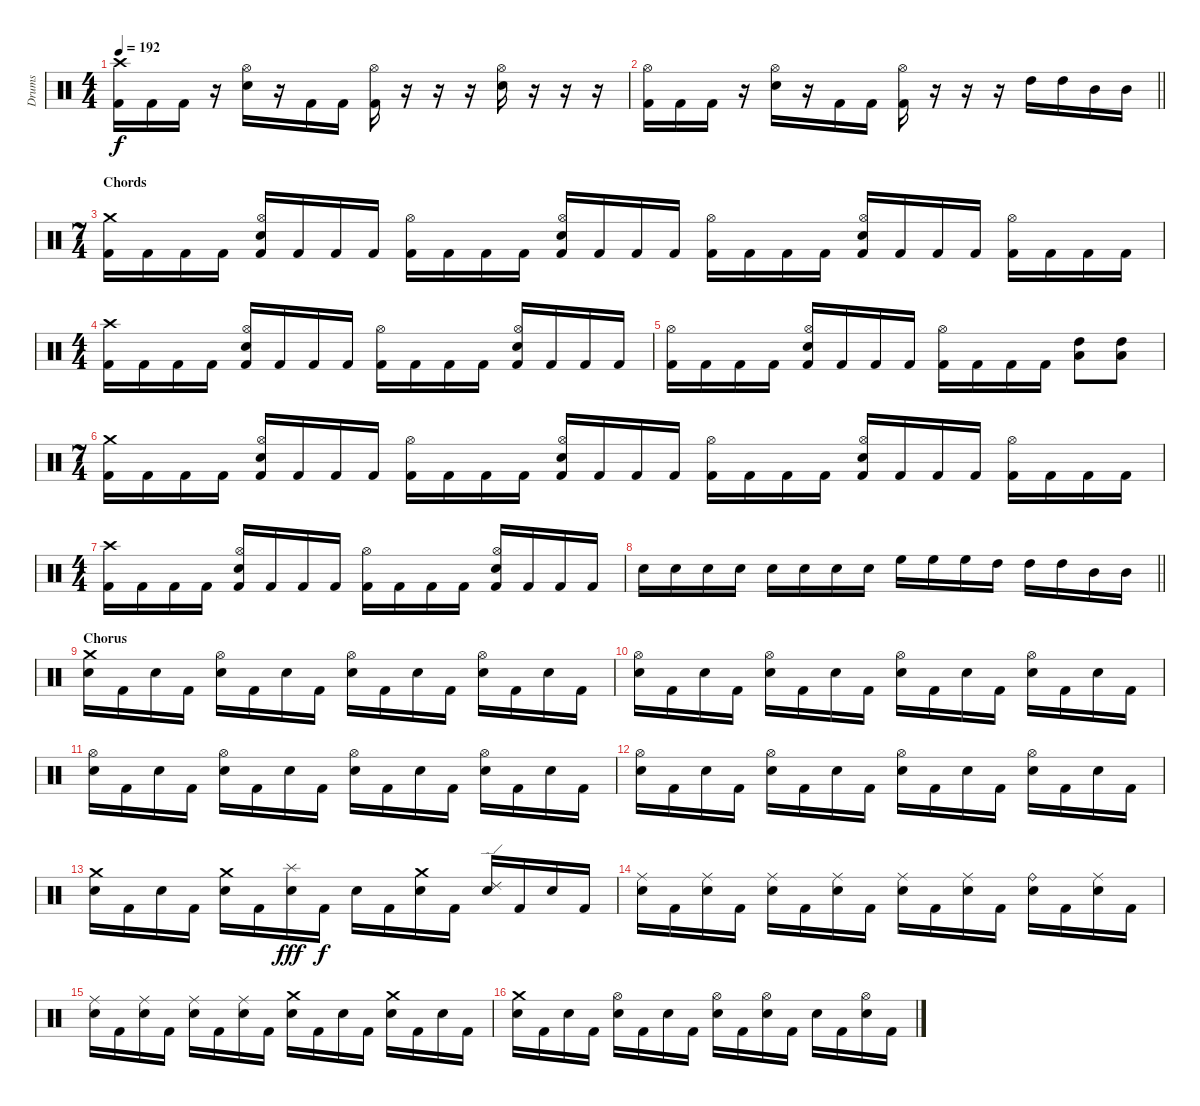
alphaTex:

\track ("Drums" "Drums") {instrument percussion}
\staff {score}
\articulation defaults
\ts (4 4)
\tempo 192
\clef neutral
\ks c
("Crash high (hit)" "Kick (hit) 2").16{dy f} "Kick (hit) 2".16 "Kick (hit) 2".16 r.16 ("Hi-Hat (open)" "Electric Snare (hit)").16 r.16 "Kick (hit) 2".16 "Kick (hit) 2".16 ("Hi-Hat (open)" "Kick (hit) 2").16 r.16 r.16 r.16 ("Hi-Hat (open)" "Electric Snare (hit)").16 r.16 r.16 r.16 |
\barLineRight lightlight
("Hi-Hat (open)" "Kick (hit) 2").16 "Kick (hit) 2".16 "Kick (hit) 2".16 r.16 ("Hi-Hat (open)" "Electric Snare (hit)").16 r.16 "Kick (hit) 2".16 "Kick (hit) 2".16 ("Hi-Hat (open)" "Kick (hit) 2").16 r.16 r.16 r.16 "High Tom (hit)".16 "High Tom (hit)".16 "Mid Tom (hit)".16 "Mid Tom (hit)".16 |
\ts (7 4)
\section ("" "Chords")
("Crash medium (hit)" "Kick (hit) 2").16 "Kick (hit) 2".16 "Kick (hit) 2".16 "Kick (hit) 2".16 ("Hi-Hat (open)" "Electric Snare (hit)" "Kick (hit) 2").16 "Kick (hit) 2".16 "Kick (hit) 2".16 "Kick (hit) 2".16 ("Hi-Hat (open)" "Kick (hit) 2").16 "Kick (hit) 2".16 "Kick (hit) 2".16 "Kick (hit) 2".16 ("Hi-Hat (open)" "Electric Snare (hit)" "Kick (hit) 2").16 "Kick (hit) 2".16 "Kick (hit) 2".16 "Kick (hit) 2".16 ("Hi-Hat (open)" "Kick (hit) 2").16 "Kick (hit) 2".16 "Kick (hit) 2".16 "Kick (hit) 2".16 ("Hi-Hat (open)" "Electric Snare (hit)" "Kick (hit) 2").16 "Kick (hit) 2".16 "Kick (hit) 2".16 "Kick (hit) 2".16 ("Hi-Hat (open)" "Kick (hit) 2").16 "Kick (hit) 2".16 "Kick (hit) 2".16 "Kick (hit) 2".16 |
\ts (4 4)
("Crash high (hit)" "Kick (hit) 2").16 "Kick (hit) 2".16 "Kick (hit) 2".16 "Kick (hit) 2".16 ("Hi-Hat (open)" "Electric Snare (hit)" "Kick (hit) 2").16 "Kick (hit) 2".16 "Kick (hit) 2".16 "Kick (hit) 2".16 ("Hi-Hat (open)" "Kick (hit) 2").16 "Kick (hit) 2".16 "Kick (hit) 2".16 "Kick (hit) 2".16 ("Hi-Hat (open)" "Electric Snare (hit)" "Kick (hit) 2").16 "Kick (hit) 2".16 "Kick (hit) 2".16 "Kick (hit) 2".16 |
("Hi-Hat (open)" "Kick (hit) 2").16 "Kick (hit) 2".16 "Kick (hit) 2".16 "Kick (hit) 2".16 ("Hi-Hat (open)" "Electric Snare (hit)" "Kick (hit) 2").16 "Kick (hit) 2".16 "Kick (hit) 2".16 "Kick (hit) 2".16 ("Hi-Hat (open)" "Kick (hit) 2").16 "Kick (hit) 2".16 "Kick (hit) 2".16 "Kick (hit) 2".16 ("High Tom (hit)" "Low Tom (hit)").8 ("High Tom (hit)" "Low Tom (hit)").8 |
\ts (7 4)
("Crash medium (hit)" "Kick (hit) 2").16 "Kick (hit) 2".16 "Kick (hit) 2".16 "Kick (hit) 2".16 ("Hi-Hat (open)" "Electric Snare (hit)" "Kick (hit) 2").16 "Kick (hit) 2".16 "Kick (hit) 2".16 "Kick (hit) 2".16 ("Hi-Hat (open)" "Kick (hit) 2").16 "Kick (hit) 2".16 "Kick (hit) 2".16 "Kick (hit) 2".16 ("Hi-Hat (open)" "Electric Snare (hit)" "Kick (hit) 2").16 "Kick (hit) 2".16 "Kick (hit) 2".16 "Kick (hit) 2".16 ("Hi-Hat (open)" "Kick (hit) 2").16 "Kick (hit) 2".16 "Kick (hit) 2".16 "Kick (hit) 2".16 ("Hi-Hat (open)" "Electric Snare (hit)" "Kick (hit) 2").16 "Kick (hit) 2".16 "Kick (hit) 2".16 "Kick (hit) 2".16 ("Hi-Hat (open)" "Kick (hit) 2").16 "Kick (hit) 2".16 "Kick (hit) 2".16 "Kick (hit) 2".16 |
\ts (4 4)
("Crash high (hit)" "Kick (hit) 2").16 "Kick (hit) 2".16 "Kick (hit) 2".16 "Kick (hit) 2".16 ("Hi-Hat (open)" "Electric Snare (hit)" "Kick (hit) 2").16 "Kick (hit) 2".16 "Kick (hit) 2".16 "Kick (hit) 2".16 ("Hi-Hat (open)" "Kick (hit) 2").16 "Kick (hit) 2".16 "Kick (hit) 2".16 "Kick (hit) 2".16 ("Hi-Hat (open)" "Electric Snare (hit)" "Kick (hit) 2").16 "Kick (hit) 2".16 "Kick (hit) 2".16 "Kick (hit) 2".16 |
\barLineRight lightlight "Electric Snare (hit)".16 "Electric Snare (hit)".16 "Electric Snare (hit)".16 "Electric Snare (hit)".16 "Electric Snare (hit)".16 "Electric Snare (hit)".16 "Electric Snare (hit)".16 "Electric Snare (hit)".16 "High Floor Tom (hit)".16 "High Floor Tom (hit)".16 "High Floor Tom (hit)".16 "High Tom (hit)".16 "High Tom (hit)".16 "High Tom (hit)".16 "Mid Tom (hit)".16 "Mid Tom (hit)".16
|
\section ("" "Chorus")
("Crash medium (hit)" "Electric Snare (hit)").16 "Kick (hit) 2".16 "Electric Snare (hit)".16 "Kick (hit) 2".16 ("Hi-Hat (open)" "Electric Snare (hit)").16 "Kick (hit) 2".16 "Electric Snare (hit)".16 "Kick (hit) 2".16 ("Hi-Hat (open)" "Electric Snare (hit)").16 "Kick (hit) 2".16 "Electric Snare (hit)".16 "Kick (hit) 2".16 ("Hi-Hat (open)" "Electric Snare (hit)").16 "Kick (hit) 2".16 "Electric Snare (hit)".16 "Kick (hit) 2".16 |
("Hi-Hat (open)" "Electric Snare (hit)").16 "Kick (hit) 2".16 "Electric Snare (hit)".16 "Kick (hit) 2".16 ("Hi-Hat (open)" "Electric Snare (hit)").16 "Kick (hit) 2".16 "Electric Snare (hit)".16 "Kick (hit) 2".16 ("Hi-Hat (open)" "Electric Snare (hit)").16 "Kick (hit) 2".16 "Electric Snare (hit)".16 "Kick (hit) 2".16 ("Hi-Hat (open)" "Electric Snare (hit)").16 "Kick (hit) 2".16 "Electric Snare (hit)".16 "Kick (hit) 2".16 |
("Hi-Hat (open)" "Electric Snare (hit)").16 "Kick (hit) 2".16 "Electric Snare (hit)".16 "Kick (hit) 2".16 ("Hi-Hat (open)" "Electric Snare (hit)").16 "Kick (hit) 2".16 "Electric Snare (hit)".16 "Kick (hit) 2".16 ("Hi-Hat (open)" "Electric Snare (hit)").16 "Kick (hit) 2".16 "Electric Snare (hit)".16 "Kick (hit) 2".16 ("Hi-Hat (open)" "Electric Snare (hit)").16 "Kick (hit) 2".16 "Electric Snare (hit)".16 "Kick (hit) 2".16 |
("Hi-Hat (open)" "Electric Snare (hit)").16 "Kick (hit) 2".16 "Electric Snare (hit)".16 "Kick (hit) 2".16 ("Hi-Hat (open)" "Electric Snare (hit)").16 "Kick (hit) 2".16 "Electric Snare (hit)".16 "Kick (hit) 2".16 ("Hi-Hat (open)" "Electric Snare (hit)").16 "Kick (hit) 2".16 "Electric Snare (hit)".16 "Kick (hit) 2".16 ("Hi-Hat (open)" "Electric Snare (hit)").16 "Kick (hit) 2".16 "Electric Snare (hit)".16 "Kick (hit) 2".16 |
("Crash medium (hit)" "Electric Snare (hit)").16 "Kick (hit) 2".16 "Electric Snare (hit)".16 "Kick (hit) 2".16 ("Crash medium (hit)" "Electric Snare (hit)").16 "Kick (hit) 2".16 ("Splash (hit)" "Electric Snare (hit)").16{dy fff} "Kick (hit) 2".16{dy f} "Electric Snare (hit)".16 "Kick (hit) 2".16 ("Crash medium (hit)" "Electric Snare (hit)").16 "Kick (hit) 2".16 ("Ride (edge) 2" "Electric Snare (hit)").16 "Kick (hit) 2".16 "Electric Snare (hit)".16 "Kick (hit) 2".16 |
("Ride (middle)" "Electric Snare (hit)").16 "Kick (hit) 2".16 ("Ride (middle)" "Electric Snare (hit)").16 "Kick (hit) 2".16 ("Ride (middle)" "Electric Snare (hit)").16 "Kick (hit) 2".16 ("Ride (middle)" "Electric Snare (hit)").16 "Kick (hit) 2".16 ("Ride (middle)" "Electric Snare (hit)").16 "Kick (hit) 2".16 ("Ride (middle)" "Electric Snare (hit)").16 "Kick (hit) 2".16 ("Ride (bell)" "Electric Snare (hit)").16 "Kick (hit) 2".16 ("Ride (middle)" "Electric Snare (hit)").16 "Kick (hit) 2".16 |
("Ride (middle)" "Electric Snare (hit)").16 "Kick (hit) 2".16 ("Ride (middle)" "Electric Snare (hit)").16 "Kick (hit) 2".16 ("Ride (middle)" "Electric Snare (hit)").16 "Kick (hit) 2".16 ("Ride (middle)" "Electric Snare (hit)").16 "Kick (hit) 2".16 ("Crash medium (hit)" "Electric Snare (hit)").16 "Kick (hit) 2".16 "Electric Snare (hit)".16 "Kick (hit) 2".16 ("Crash medium (hit)" "Electric Snare (hit)").16 "Kick (hit) 2".16 "Electric Snare (hit)".16 "Kick (hit) 2".16 |
("Crash medium (hit)" "Electric Snare (hit)").16 "Kick (hit) 2".16 "Electric Snare (hit)".16 "Kick (hit) 2".16 ("Hi-Hat (open)" "Electric Snare (hit)").16 "Kick (hit) 2".16 "Electric Snare (hit)".16 "Kick (hit) 2".16 ("Hi-Hat (open)" "Electric Snare (hit)").16 "Kick (hit) 2".16 ("Hi-Hat (open)" "Electric Snare (hit)").16 "Kick (hit) 2".16 "Electric Snare (hit)".16 "Kick (hit) 2".16 ("Hi-Hat (open)" "Electric Snare (hit)").16 "Kick (hit) 2".16
